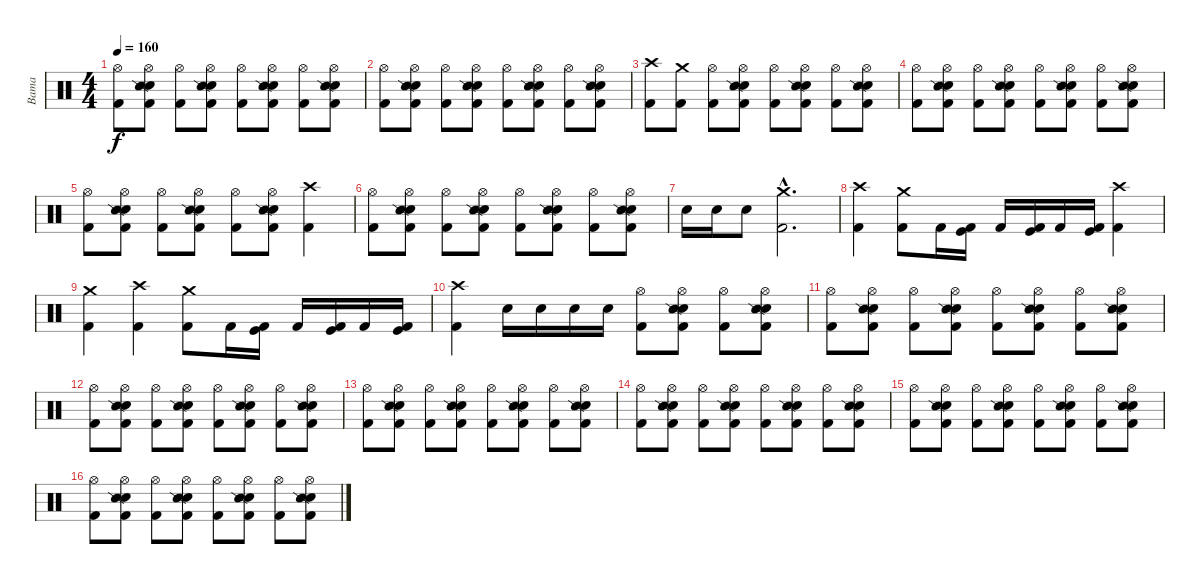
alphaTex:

\track ("Bama" "Bama") {instrument percussion}
\staff {score}
\articulation defaults
\ts (4 4)
\tempo 160
\clef neutral
\ks c
("Hi-Hat (open)" "Kick (hit) 2").8{dy f} ("Hi-Hat (open)" "Electric Snare (hit)" "Snare (side stick) 2" "Kick (hit) 2").8 ("Hi-Hat (open)" "Kick (hit) 2").8 ("Hi-Hat (open)" "Electric Snare (hit)" "Snare (side stick) 2" "Kick (hit) 2").8 ("Hi-Hat (open)" "Kick (hit) 2").8 ("Hi-Hat (open)" "Electric Snare (hit)" "Snare (side stick) 2" "Kick (hit) 2").8 ("Hi-Hat (open)" "Kick (hit) 2").8 ("Hi-Hat (open)" "Electric Snare (hit)" "Snare (side stick) 2" "Kick (hit) 2").8 |
("Hi-Hat (open)" "Kick (hit) 2").8 ("Hi-Hat (open)" "Electric Snare (hit)" "Snare (side stick) 2" "Kick (hit) 2").8 ("Hi-Hat (open)" "Kick (hit) 2").8 ("Hi-Hat (open)" "Electric Snare (hit)" "Snare (side stick) 2" "Kick (hit) 2").8 ("Hi-Hat (open)" "Kick (hit) 2").8 ("Hi-Hat (open)" "Electric Snare (hit)" "Snare (side stick) 2" "Kick (hit) 2").8 ("Hi-Hat (open)" "Kick (hit) 2").8 ("Hi-Hat (open)" "Electric Snare (hit)" "Snare (side stick) 2" "Kick (hit) 2").8 |
("Crash high (hit)" "Kick (hit) 2").8 ("Crash medium (hit)" "Kick (hit) 2").8 ("Hi-Hat (open)" "Kick (hit) 2").8 ("Hi-Hat (open)" "Electric Snare (hit)" "Snare (side stick) 2" "Kick (hit) 2").8 ("Hi-Hat (open)" "Kick (hit) 2").8 ("Hi-Hat (open)" "Electric Snare (hit)" "Snare (side stick) 2" "Kick (hit) 2").8 ("Hi-Hat (open)" "Kick (hit) 2").8 ("Hi-Hat (open)" "Electric Snare (hit)" "Snare (side stick) 2" "Kick (hit) 2").8 |
("Hi-Hat (open)" "Kick (hit) 2").8 ("Hi-Hat (open)" "Electric Snare (hit)" "Snare (side stick) 2" "Kick (hit) 2").8 ("Hi-Hat (open)" "Kick (hit) 2").8 ("Hi-Hat (open)" "Electric Snare (hit)" "Snare (side stick) 2" "Kick (hit) 2").8 ("Hi-Hat (open)" "Kick (hit) 2").8 ("Hi-Hat (open)" "Electric Snare (hit)" "Snare (side stick) 2" "Kick (hit) 2").8 ("Hi-Hat (open)" "Kick (hit) 2").8 ("Hi-Hat (open)" "Electric Snare (hit)" "Snare (side stick) 2" "Kick (hit) 2").8 |
("Hi-Hat (open)" "Kick (hit) 2").8 ("Hi-Hat (open)" "Electric Snare (hit)" "Snare (side stick) 2" "Kick (hit) 2").8 ("Hi-Hat (open)" "Kick (hit) 2").8 ("Hi-Hat (open)" "Electric Snare (hit)" "Snare (side stick) 2" "Kick (hit) 2").8 ("Hi-Hat (open)" "Kick (hit) 2").8 ("Hi-Hat (open)" "Electric Snare (hit)" "Snare (side stick) 2" "Kick (hit) 2").8 ("Crash high (hit)" "Kick (hit) 2").4 |
("Hi-Hat (open)" "Kick (hit) 2").8 ("Hi-Hat (open)" "Electric Snare (hit)" "Snare (side stick) 2" "Kick (hit) 2").8 ("Hi-Hat (open)" "Kick (hit) 2").8 ("Hi-Hat (open)" "Electric Snare (hit)" "Snare (side stick) 2" "Kick (hit) 2").8 ("Hi-Hat (open)" "Kick (hit) 2").8 ("Hi-Hat (open)" "Electric Snare (hit)" "Snare (side stick) 2" "Kick (hit) 2").8 ("Hi-Hat (open)" "Kick (hit) 2").8 ("Hi-Hat (open)" "Electric Snare (hit)" "Snare (side stick) 2" "Kick (hit) 2").8 |
"Electric Snare (hit)".16 "Electric Snare (hit)".16 "Electric Snare (hit)".8 ("Crash medium (hit)"{hac} "Kick (hit) 2"{hac}).2{d} |
("Crash high (hit)" "Kick (hit) 2").4 ("Crash medium (hit)" "Kick (hit) 2").8 "Kick (hit) 2".16 ("Kick (hit)" "Kick (hit) 2").16 "Kick (hit) 2".16 ("Kick (hit)" "Kick (hit) 2").16 "Kick (hit) 2".16 ("Kick (hit)" "Kick (hit) 2").16 ("Crash high (hit)" "Kick (hit) 2").4 |
("Crash medium (hit)" "Kick (hit) 2").4 ("Crash high (hit)" "Kick (hit) 2").4 ("Crash medium (hit)" "Kick (hit) 2").8 "Kick (hit) 2".16 ("Kick (hit)" "Kick (hit) 2").16 "Kick (hit) 2".16 ("Kick (hit)" "Kick (hit) 2").16 "Kick (hit) 2".16 ("Kick (hit)" "Kick (hit) 2").16 |
("Crash high (hit)" "Kick (hit) 2").4 "Electric Snare (hit)".16 "Electric Snare (hit)".16 "Electric Snare (hit)".16 "Electric Snare (hit)".16 ("Hi-Hat (open)" "Kick (hit) 2").8 ("Hi-Hat (open)" "Electric Snare (hit)" "Snare (side stick) 2" "Kick (hit) 2").8 ("Hi-Hat (open)" "Kick (hit) 2").8 ("Hi-Hat (open)" "Electric Snare (hit)" "Snare (side stick) 2" "Kick (hit) 2").8 |
("Hi-Hat (open)" "Kick (hit) 2").8 ("Hi-Hat (open)" "Electric Snare (hit)" "Snare (side stick) 2" "Kick (hit) 2").8 ("Hi-Hat (open)" "Kick (hit) 2").8 ("Hi-Hat (open)" "Electric Snare (hit)" "Snare (side stick) 2" "Kick (hit) 2").8 ("Hi-Hat (open)" "Kick (hit) 2").8 ("Hi-Hat (open)" "Electric Snare (hit)" "Snare (side stick) 2" "Kick (hit) 2").8 ("Hi-Hat (open)" "Kick (hit) 2").8 ("Hi-Hat (open)" "Electric Snare (hit)" "Snare (side stick) 2" "Kick (hit) 2").8 |
("Hi-Hat (open)" "Kick (hit) 2").8 ("Hi-Hat (open)" "Electric Snare (hit)" "Snare (side stick) 2" "Kick (hit) 2").8 ("Hi-Hat (open)" "Kick (hit) 2").8 ("Hi-Hat (open)" "Electric Snare (hit)" "Snare (side stick) 2" "Kick (hit) 2").8 ("Hi-Hat (open)" "Kick (hit) 2").8 ("Hi-Hat (open)" "Electric Snare (hit)" "Snare (side stick) 2" "Kick (hit) 2").8 ("Hi-Hat (open)" "Kick (hit) 2").8 ("Hi-Hat (open)" "Electric Snare (hit)" "Snare (side stick) 2" "Kick (hit) 2").8 |
("Hi-Hat (open)" "Kick (hit) 2").8 ("Hi-Hat (open)" "Electric Snare (hit)" "Snare (side stick) 2" "Kick (hit) 2").8 ("Hi-Hat (open)" "Kick (hit) 2").8 ("Hi-Hat (open)" "Electric Snare (hit)" "Snare (side stick) 2" "Kick (hit) 2").8 ("Hi-Hat (open)" "Kick (hit) 2").8 ("Hi-Hat (open)" "Electric Snare (hit)" "Snare (side stick) 2" "Kick (hit) 2").8 ("Hi-Hat (open)" "Kick (hit) 2").8 ("Hi-Hat (open)" "Electric Snare (hit)" "Snare (side stick) 2" "Kick (hit) 2").8 |
("Hi-Hat (open)" "Kick (hit) 2").8 ("Hi-Hat (open)" "Electric Snare (hit)" "Snare (side stick) 2" "Kick (hit) 2").8 ("Hi-Hat (open)" "Kick (hit) 2").8 ("Hi-Hat (open)" "Electric Snare (hit)" "Snare (side stick) 2" "Kick (hit) 2").8 ("Hi-Hat (open)" "Kick (hit) 2").8 ("Hi-Hat (open)" "Electric Snare (hit)" "Snare (side stick) 2" "Kick (hit) 2").8 ("Hi-Hat (open)" "Kick (hit) 2").8 ("Hi-Hat (open)" "Electric Snare (hit)" "Snare (side stick) 2" "Kick (hit) 2").8 |
("Hi-Hat (open)" "Kick (hit) 2").8 ("Hi-Hat (open)" "Electric Snare (hit)" "Snare (side stick) 2" "Kick (hit) 2").8 ("Hi-Hat (open)" "Kick (hit) 2").8 ("Hi-Hat (open)" "Electric Snare (hit)" "Snare (side stick) 2" "Kick (hit) 2").8 ("Hi-Hat (open)" "Kick (hit) 2").8 ("Hi-Hat (open)" "Electric Snare (hit)" "Snare (side stick) 2" "Kick (hit) 2").8 ("Hi-Hat (open)" "Kick (hit) 2").8 ("Hi-Hat (open)" "Electric Snare (hit)" "Snare (side stick) 2" "Kick (hit) 2").8 |
("Hi-Hat (open)" "Kick (hit) 2").8 ("Hi-Hat (open)" "Electric Snare (hit)" "Snare (side stick) 2" "Kick (hit) 2").8 ("Hi-Hat (open)" "Kick (hit) 2").8 ("Hi-Hat (open)" "Electric Snare (hit)" "Snare (side stick) 2" "Kick (hit) 2").8 ("Hi-Hat (open)" "Kick (hit) 2").8 ("Hi-Hat (open)" "Electric Snare (hit)" "Snare (side stick) 2" "Kick (hit) 2").8 ("Hi-Hat (open)" "Kick (hit) 2").8 ("Hi-Hat (open)" "Electric Snare (hit)" "Snare (side stick) 2" "Kick (hit) 2").8
